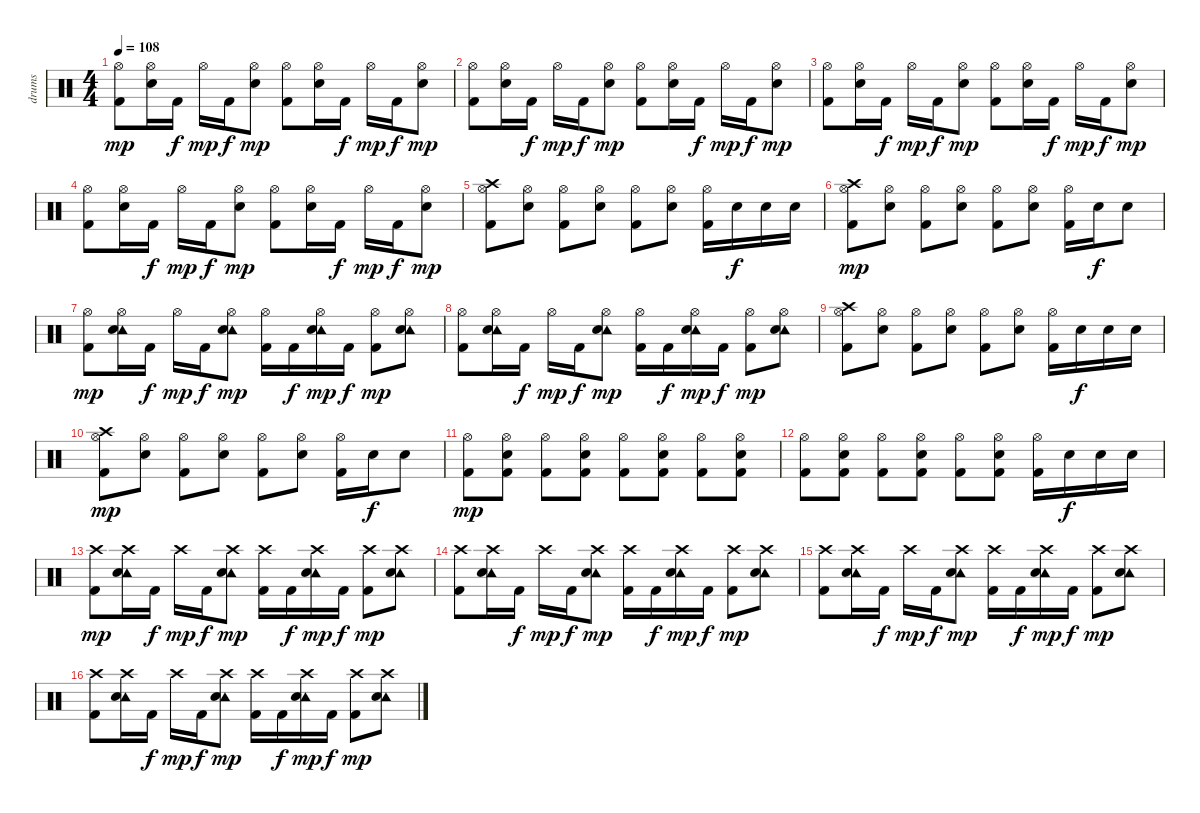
\track ("drums" "drums") {instrument percussion}
\staff {score}
\articulation defaults
\ts (4 4)
\tempo 108
\clef neutral
\ks c
("Hi-Hat (open)" "Kick (hit) 2").8{dy mp} ("Hi-Hat (open)" "Snare (hit) 2").16 "Kick (hit) 2".16{dy f} "Hi-Hat (open)".16{dy mp} "Kick (hit) 2".16{dy f} ("Hi-Hat (open)" "Snare (hit) 2").8{dy mp} ("Hi-Hat (open)" "Kick (hit) 2").8 ("Hi-Hat (open)" "Snare (hit) 2").16 "Kick (hit) 2".16{dy f} "Hi-Hat (open)".16{dy mp} "Kick (hit) 2".16{dy f} ("Hi-Hat (open)" "Snare (hit) 2").8{dy mp} |
("Hi-Hat (open)" "Kick (hit) 2").8 ("Hi-Hat (open)" "Snare (hit) 2").16 "Kick (hit) 2".16{dy f} "Hi-Hat (open)".16{dy mp} "Kick (hit) 2".16{dy f} ("Hi-Hat (open)" "Snare (hit) 2").8{dy mp} ("Hi-Hat (open)" "Kick (hit) 2").8 ("Hi-Hat (open)" "Snare (hit) 2").16 "Kick (hit) 2".16{dy f} "Hi-Hat (open)".16{dy mp} "Kick (hit) 2".16{dy f} ("Hi-Hat (open)" "Snare (hit) 2").8{dy mp} |
("Hi-Hat (open)" "Kick (hit) 2").8 ("Hi-Hat (open)" "Snare (hit) 2").16 "Kick (hit) 2".16{dy f} "Hi-Hat (open)".16{dy mp} "Kick (hit) 2".16{dy f} ("Hi-Hat (open)" "Snare (hit) 2").8{dy mp} ("Hi-Hat (open)" "Kick (hit) 2").8 ("Hi-Hat (open)" "Snare (hit) 2").16 "Kick (hit) 2".16{dy f} "Hi-Hat (open)".16{dy mp} "Kick (hit) 2".16{dy f} ("Hi-Hat (open)" "Snare (hit) 2").8{dy mp} |
("Hi-Hat (open)" "Kick (hit) 2").8 ("Hi-Hat (open)" "Snare (hit) 2").16 "Kick (hit) 2".16{dy f} "Hi-Hat (open)".16{dy mp} "Kick (hit) 2".16{dy f} ("Hi-Hat (open)" "Snare (hit) 2").8{dy mp} ("Hi-Hat (open)" "Kick (hit) 2").8 ("Hi-Hat (open)" "Snare (hit) 2").16 "Kick (hit) 2".16{dy f} "Hi-Hat (open)".16{dy mp} "Kick (hit) 2".16{dy f} ("Hi-Hat (open)" "Snare (hit) 2").8{dy mp} |
("Crash high (hit)" "Hi-Hat (open)" "Kick (hit) 2").8 ("Hi-Hat (open)" "Snare (hit) 2").8 ("Hi-Hat (open)" "Kick (hit) 2").8 ("Hi-Hat (open)" "Snare (hit) 2").8 ("Hi-Hat (open)" "Kick (hit) 2").8 ("Hi-Hat (open)" "Snare (hit) 2").8 ("Hi-Hat (open)" "Kick (hit) 2").16 "Snare (hit) 2".16{dy f} "Snare (hit) 2".16 "Snare (hit) 2".16 |
("Crash high (hit)" "Hi-Hat (open)" "Kick (hit) 2").8{dy mp} ("Hi-Hat (open)" "Snare (hit) 2").8 ("Hi-Hat (open)" "Kick (hit) 2").8 ("Hi-Hat (open)" "Snare (hit) 2").8 ("Hi-Hat (open)" "Kick (hit) 2").8 ("Hi-Hat (open)" "Snare (hit) 2").8 ("Hi-Hat (open)" "Kick (hit) 2").16 "Snare (hit) 2".16{dy f} "Snare (hit) 2".8 |
("Hi-Hat (open)" "Kick (hit) 2").8{dy mp} ("Tambourine (hit)" "Hi-Hat (open)" "Snare (hit) 2").16 "Kick (hit) 2".16{dy f} "Hi-Hat (open)".16{dy mp} "Kick (hit) 2".16{dy f} ("Tambourine (hit)" "Hi-Hat (open)" "Snare (hit) 2").8{dy mp} ("Hi-Hat (open)" "Kick (hit) 2").16 "Kick (hit) 2".16{dy f} ("Tambourine (hit)" "Hi-Hat (open)" "Snare (hit) 2").16{dy mp} "Kick (hit) 2".16{dy f} ("Hi-Hat (open)" "Kick (hit) 2").8{dy mp} ("Tambourine (hit)" "Hi-Hat (open)" "Snare (hit) 2").8 |
("Hi-Hat (open)" "Kick (hit) 2").8 ("Tambourine (hit)" "Hi-Hat (open)" "Snare (hit) 2").16 "Kick (hit) 2".16{dy f} "Hi-Hat (open)".16{dy mp} "Kick (hit) 2".16{dy f} ("Tambourine (hit)" "Hi-Hat (open)" "Snare (hit) 2").8{dy mp} ("Hi-Hat (open)" "Kick (hit) 2").16 "Kick (hit) 2".16{dy f} ("Tambourine (hit)" "Hi-Hat (open)" "Snare (hit) 2").16{dy mp} "Kick (hit) 2".16{dy f} ("Hi-Hat (open)" "Kick (hit) 2").8{dy mp} ("Tambourine (hit)" "Hi-Hat (open)" "Snare (hit) 2").8 |
("Crash high (hit)" "Hi-Hat (open)" "Kick (hit) 2").8 ("Hi-Hat (open)" "Snare (hit) 2").8 ("Hi-Hat (open)" "Kick (hit) 2").8 ("Hi-Hat (open)" "Snare (hit) 2").8 ("Hi-Hat (open)" "Kick (hit) 2").8 ("Hi-Hat (open)" "Snare (hit) 2").8 ("Hi-Hat (open)" "Kick (hit) 2").16 "Snare (hit) 2".16{dy f} "Snare (hit) 2".16 "Snare (hit) 2".16 |
("Crash high (hit)" "Hi-Hat (open)" "Kick (hit) 2").8{dy mp} ("Hi-Hat (open)" "Snare (hit) 2").8 ("Hi-Hat (open)" "Kick (hit) 2").8 ("Hi-Hat (open)" "Snare (hit) 2").8 ("Hi-Hat (open)" "Kick (hit) 2").8 ("Hi-Hat (open)" "Snare (hit) 2").8 ("Hi-Hat (open)" "Kick (hit) 2").16 "Snare (hit) 2".16{dy f} "Snare (hit) 2".8 |
("Hi-Hat (open)" "Kick (hit) 2").8{dy mp} ("Snare (hit) 2" "Hi-Hat (open)" "Kick (hit) 2").8 ("Hi-Hat (open)" "Kick (hit) 2").8 ("Snare (hit) 2" "Hi-Hat (open)" "Kick (hit) 2").8 ("Hi-Hat (open)" "Kick (hit) 2").8 ("Snare (hit) 2" "Hi-Hat (open)" "Kick (hit) 2").8 ("Hi-Hat (open)" "Kick (hit) 2").8 ("Snare (hit) 2" "Hi-Hat (open)" "Kick (hit) 2").8 |
("Hi-Hat (open)" "Kick (hit) 2").8 ("Snare (hit) 2" "Hi-Hat (open)" "Kick (hit) 2").8 ("Hi-Hat (open)" "Kick (hit) 2").8 ("Snare (hit) 2" "Hi-Hat (open)" "Kick (hit) 2").8 ("Hi-Hat (open)" "Kick (hit) 2").8 ("Snare (hit) 2" "Hi-Hat (open)" "Kick (hit) 2").8 ("Hi-Hat (open)" "Kick (hit) 2").16 "Snare (hit) 2".16{dy f} "Snare (hit) 2".16 "Snare (hit) 2".16 |
("Crash high (hit)" "Kick (hit) 2").8{dy mp} ("Tambourine (hit)" "Crash high (hit)" "Snare (hit) 2").16 "Kick (hit) 2".16{dy f} "Crash high (hit)".16{dy mp} "Kick (hit) 2".16{dy f} ("Tambourine (hit)" "Crash high (hit)" "Snare (hit) 2").8{dy mp} ("Crash high (hit)" "Kick (hit) 2").16 "Kick (hit) 2".16{dy f} ("Tambourine (hit)" "Crash high (hit)" "Snare (hit) 2").16{dy mp} "Kick (hit) 2".16{dy f} ("Crash high (hit)" "Kick (hit) 2").8{dy mp} ("Tambourine (hit)" "Crash high (hit)" "Snare (hit) 2").8 |
("Crash high (hit)" "Kick (hit) 2").8 ("Tambourine (hit)" "Crash high (hit)" "Snare (hit) 2").16 "Kick (hit) 2".16{dy f} "Crash high (hit)".16{dy mp} "Kick (hit) 2".16{dy f} ("Tambourine (hit)" "Crash high (hit)" "Snare (hit) 2").8{dy mp} ("Crash high (hit)" "Kick (hit) 2").16 "Kick (hit) 2".16{dy f} ("Tambourine (hit)" "Crash high (hit)" "Snare (hit) 2").16{dy mp} "Kick (hit) 2".16{dy f} ("Crash high (hit)" "Kick (hit) 2").8{dy mp} ("Tambourine (hit)" "Crash high (hit)" "Snare (hit) 2").8 |
("Crash high (hit)" "Kick (hit) 2").8 ("Tambourine (hit)" "Crash high (hit)" "Snare (hit) 2").16 "Kick (hit) 2".16{dy f} "Crash high (hit)".16{dy mp} "Kick (hit) 2".16{dy f} ("Tambourine (hit)" "Crash high (hit)" "Snare (hit) 2").8{dy mp} ("Crash high (hit)" "Kick (hit) 2").16 "Kick (hit) 2".16{dy f} ("Tambourine (hit)" "Crash high (hit)" "Snare (hit) 2").16{dy mp} "Kick (hit) 2".16{dy f} ("Crash high (hit)" "Kick (hit) 2").8{dy mp} ("Tambourine (hit)" "Crash high (hit)" "Snare (hit) 2").8 |
("Crash high (hit)" "Kick (hit) 2").8 ("Tambourine (hit)" "Crash high (hit)" "Snare (hit) 2").16 "Kick (hit) 2".16{dy f} "Crash high (hit)".16{dy mp} "Kick (hit) 2".16{dy f} ("Tambourine (hit)" "Crash high (hit)" "Snare (hit) 2").8{dy mp} ("Crash high (hit)" "Kick (hit) 2").16 "Kick (hit) 2".16{dy f} ("Tambourine (hit)" "Crash high (hit)" "Snare (hit) 2").16{dy mp} "Kick (hit) 2".16{dy f} ("Crash high (hit)" "Kick (hit) 2").8{dy mp} ("Tambourine (hit)" "Crash high (hit)" "Snare (hit) 2").8
